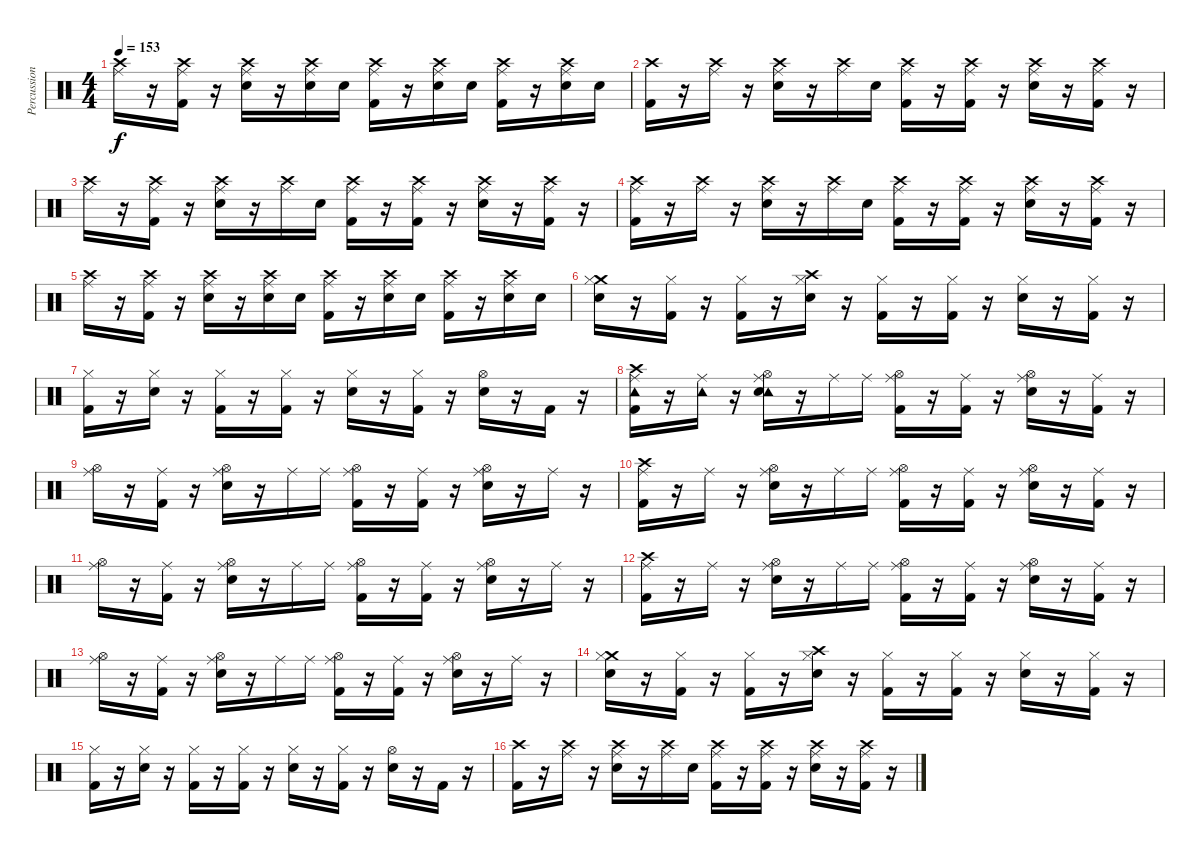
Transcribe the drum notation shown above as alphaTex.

\track ("Percussion" "Percussion") {instrument percussion}
\staff {score}
\articulation defaults
\ts (4 4)
\tempo 153
\clef neutral
\ks c
("Crash high (hit)" "Ride (middle)").16{dy f} r.16 ("Crash high (hit)" "Ride (middle)" "Kick (hit) 2").16 r.16 ("Crash high (hit)" "Ride (middle)" "Electric Snare (hit)").16 r.16 ("Crash high (hit)" "Electric Snare (hit)" "Ride (middle)").16 "Electric Snare (hit)".16 ("Crash high (hit)" "Kick (hit) 2" "Ride (middle)").16 r.16 ("Crash high (hit)" "Electric Snare (hit)" "Ride (middle)").16 "Electric Snare (hit)".16 ("Crash high (hit)" "Kick (hit) 2" "Ride (middle)").16 r.16 ("Crash high (hit)" "Electric Snare (hit)" "Ride (middle)").16 "Electric Snare (hit)".16 |
("Kick (hit) 2" "Crash high (hit)").16 r.16 ("Crash high (hit)" "Ride (middle)").16 r.16 ("Electric Snare (hit)" "Crash high (hit)" "Ride (middle)").16 r.16 ("Crash high (hit)" "Ride (middle)").16 "Electric Snare (hit)".16 ("Kick (hit) 2" "Crash high (hit)" "Ride (middle)").16 r.16 ("Kick (hit) 2" "Crash high (hit)" "Ride (middle)").16 r.16 ("Electric Snare (hit)" "Crash high (hit)" "Ride (middle)").16 r.16 ("Kick (hit) 2" "Crash high (hit)" "Ride (middle)").16 r.16 |
("Crash high (hit)" "Ride (middle)").16 r.16 ("Crash high (hit)" "Kick (hit) 2" "Ride (middle)").16 r.16 ("Crash high (hit)" "Electric Snare (hit)" "Ride (middle)").16 r.16 ("Crash high (hit)" "Ride (middle)").16 "Electric Snare (hit)".16 ("Kick (hit) 2" "Crash high (hit)" "Ride (middle)").16 r.16 ("Kick (hit) 2" "Crash high (hit)" "Ride (middle)").16 r.16 ("Electric Snare (hit)" "Crash high (hit)" "Ride (middle)").16 r.16 ("Crash high (hit)" "Kick (hit) 2" "Ride (middle)").16 r.16 |
("Kick (hit) 2" "Crash high (hit)" "Ride (middle)").16 r.16 ("Crash high (hit)" "Ride (middle)").16 r.16 ("Electric Snare (hit)" "Crash high (hit)" "Ride (middle)").16 r.16 ("Crash high (hit)" "Ride (middle)").16 "Electric Snare (hit)".16 ("Kick (hit) 2" "Crash high (hit)" "Ride (middle)").16 r.16 ("Kick (hit) 2" "Crash high (hit)" "Ride (middle)").16 r.16 ("Electric Snare (hit)" "Crash high (hit)" "Ride (middle)").16 r.16 ("Kick (hit) 2" "Crash high (hit)" "Ride (middle)").16 r.16 |
("Crash high (hit)" "Ride (middle)").16 r.16 ("Crash high (hit)" "Ride (middle)" "Kick (hit) 2").16 r.16 ("Crash high (hit)" "Ride (middle)" "Electric Snare (hit)").16 r.16 ("Crash high (hit)" "Electric Snare (hit)" "Ride (middle)").16 "Electric Snare (hit)".16 ("Crash high (hit)" "Kick (hit) 2" "Ride (middle)").16 r.16 ("Crash high (hit)" "Electric Snare (hit)" "Ride (middle)").16 "Electric Snare (hit)".16 ("Crash high (hit)" "Kick (hit) 2" "Ride (middle)").16 r.16 ("Crash high (hit)" "Electric Snare (hit)" "Ride (middle)").16 "Electric Snare (hit)".16 |
("Electric Snare (hit)" "Crash medium (hit)" "Hi-Hat (closed)").16 r.16 ("Kick (hit) 2" "Hi-Hat (closed)").16 r.16 ("Kick (hit) 2" "Hi-Hat (closed)").16 r.16 ("Electric Snare (hit)" "Crash high (hit)" "Hi-Hat (closed)").16 r.16 ("Kick (hit) 2" "Hi-Hat (closed)").16 r.16 ("Kick (hit) 2" "Hi-Hat (closed)").16 r.16 ("Electric Snare (hit)" "Hi-Hat (closed)").16 r.16 ("Kick (hit) 2" "Hi-Hat (closed)").16 r.16 |
("Kick (hit) 2" "Hi-Hat (closed)").16 r.16 ("Electric Snare (hit)" "Hi-Hat (closed)").16 r.16 ("Kick (hit) 2" "Hi-Hat (closed)").16 r.16 ("Kick (hit) 2" "Hi-Hat (closed)").16 r.16 ("Electric Snare (hit)" "Hi-Hat (closed)").16 r.16 ("Kick (hit) 2" "Hi-Hat (closed)").16 r.16 ("Electric Snare (hit)" "Hi-Hat (open)").16 r.16 "Kick (hit) 2".16 r.16 |
("Crash high (hit)" "Tambourine (hit)" "Ride (middle)" "Kick (hit) 2").16 r.16 ("Tambourine (hit)" "Ride (middle)").16 r.16 ("Tambourine (hit)" "Hi-Hat (open)" "Ride (middle)" "Electric Snare (hit)").16 r.16 "Ride (middle)".16 "Ride (middle)".16 ("Hi-Hat (open)" "Ride (middle)" "Kick (hit) 2").16 r.16 ("Ride (middle)" "Kick (hit) 2").16 r.16 ("Hi-Hat (open)" "Ride (middle)" "Electric Snare (hit)").16 r.16 ("Ride (middle)" "Kick (hit) 2").16 r.16 |
("Hi-Hat (open)" "Ride (middle)").16 r.16 ("Ride (middle)" "Kick (hit) 2").16 r.16 ("Hi-Hat (open)" "Ride (middle)" "Electric Snare (hit)").16 r.16 "Ride (middle)".16 "Ride (middle)".16 ("Hi-Hat (open)" "Ride (middle)" "Kick (hit) 2").16 r.16 ("Ride (middle)" "Kick (hit) 2").16 r.16 ("Hi-Hat (open)" "Ride (middle)" "Electric Snare (hit)").16 r.16 "Ride (middle)".16 r.16 |
("Crash high (hit)" "Ride (middle)" "Kick (hit) 2").16 r.16 "Ride (middle)".16 r.16 ("Hi-Hat (open)" "Ride (middle)" "Electric Snare (hit)").16 r.16 "Ride (middle)".16 "Ride (middle)".16 ("Hi-Hat (open)" "Ride (middle)" "Kick (hit) 2").16 r.16 ("Ride (middle)" "Kick (hit) 2").16 r.16 ("Hi-Hat (open)" "Ride (middle)" "Electric Snare (hit)").16 r.16 ("Ride (middle)" "Kick (hit) 2").16 r.16 |
("Hi-Hat (open)" "Ride (middle)").16 r.16 ("Ride (middle)" "Kick (hit) 2").16 r.16 ("Hi-Hat (open)" "Ride (middle)" "Electric Snare (hit)").16 r.16 "Ride (middle)".16 "Ride (middle)".16 ("Hi-Hat (open)" "Ride (middle)" "Kick (hit) 2").16 r.16 ("Ride (middle)" "Kick (hit) 2").16 r.16 ("Hi-Hat (open)" "Ride (middle)" "Electric Snare (hit)").16 r.16 "Ride (middle)".16 r.16 |
("Crash high (hit)" "Ride (middle)" "Kick (hit) 2").16 r.16 "Ride (middle)".16 r.16 ("Hi-Hat (open)" "Ride (middle)" "Electric Snare (hit)").16 r.16 "Ride (middle)".16 "Ride (middle)".16 ("Hi-Hat (open)" "Ride (middle)" "Kick (hit) 2").16 r.16 ("Ride (middle)" "Kick (hit) 2").16 r.16 ("Hi-Hat (open)" "Ride (middle)" "Electric Snare (hit)").16 r.16 ("Ride (middle)" "Kick (hit) 2").16 r.16 |
("Hi-Hat (open)" "Ride (middle)").16 r.16 ("Ride (middle)" "Kick (hit) 2").16 r.16 ("Hi-Hat (open)" "Ride (middle)" "Electric Snare (hit)").16 r.16 "Ride (middle)".16 "Ride (middle)".16 ("Hi-Hat (open)" "Ride (middle)" "Kick (hit) 2").16 r.16 ("Ride (middle)" "Kick (hit) 2").16 r.16 ("Hi-Hat (open)" "Ride (middle)" "Electric Snare (hit)").16 r.16 "Ride (middle)".16 r.16 |
("Electric Snare (hit)" "Crash medium (hit)" "Hi-Hat (closed)").16 r.16 ("Kick (hit) 2" "Hi-Hat (closed)").16 r.16 ("Kick (hit) 2" "Hi-Hat (closed)").16 r.16 ("Electric Snare (hit)" "Crash high (hit)" "Hi-Hat (closed)").16 r.16 ("Kick (hit) 2" "Hi-Hat (closed)").16 r.16 ("Kick (hit) 2" "Hi-Hat (closed)").16 r.16 ("Electric Snare (hit)" "Hi-Hat (closed)").16 r.16 ("Kick (hit) 2" "Hi-Hat (closed)").16 r.16 |
("Kick (hit) 2" "Hi-Hat (closed)").16 r.16 ("Electric Snare (hit)" "Hi-Hat (closed)").16 r.16 ("Kick (hit) 2" "Hi-Hat (closed)").16 r.16 ("Kick (hit) 2" "Hi-Hat (closed)").16 r.16 ("Electric Snare (hit)" "Hi-Hat (closed)").16 r.16 ("Kick (hit) 2" "Hi-Hat (closed)").16 r.16 ("Electric Snare (hit)" "Hi-Hat (open)").16 r.16 "Kick (hit) 2".16 r.16 |
("Kick (hit) 2" "Crash high (hit)").16 r.16 ("Crash high (hit)" "Ride (middle)").16 r.16 ("Electric Snare (hit)" "Crash high (hit)" "Ride (middle)").16 r.16 ("Crash high (hit)" "Ride (middle)").16 "Electric Snare (hit)".16 ("Kick (hit) 2" "Crash high (hit)" "Ride (middle)").16 r.16 ("Kick (hit) 2" "Crash high (hit)" "Ride (middle)").16 r.16 ("Electric Snare (hit)" "Crash high (hit)" "Ride (middle)").16 r.16 ("Kick (hit) 2" "Crash high (hit)" "Ride (middle)").16 r.16
